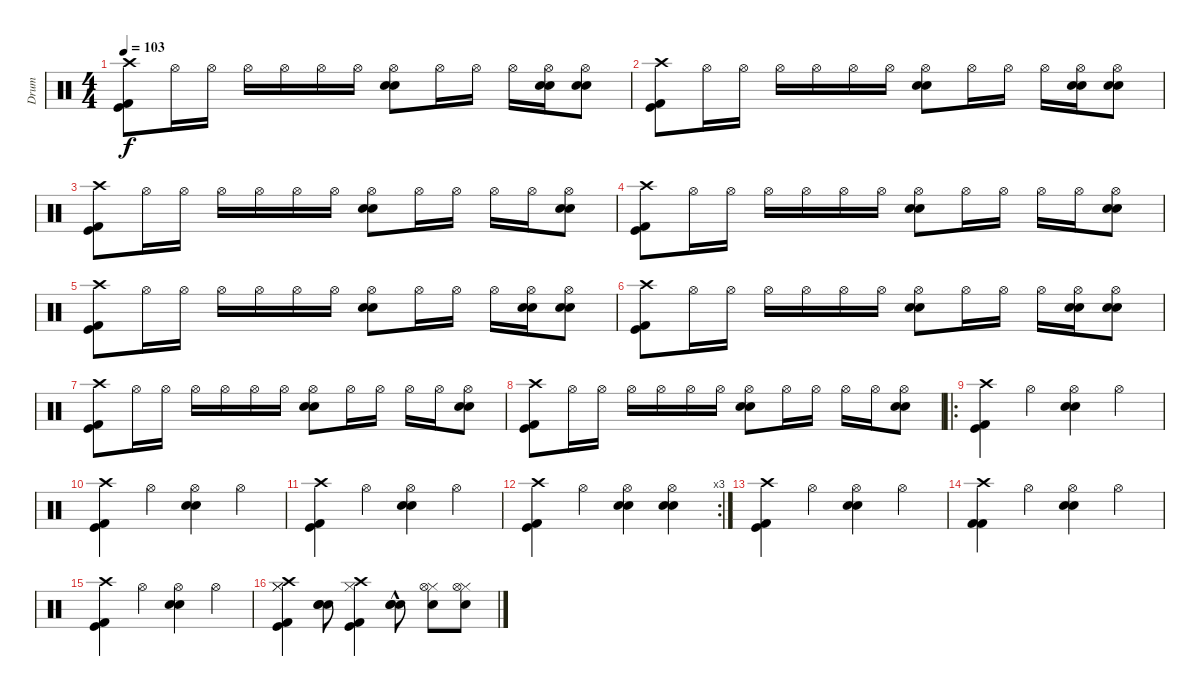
\track ("Drum" "Drum") {instrument percussion}
\staff {score}
\articulation defaults
\ts (4 4)
\tempo 103
\clef neutral
\ks c
("Kick (hit)" "Kick (hit) 2" "Crash high (hit)").8{dy f} "Hi-Hat (open)".16 "Hi-Hat (open)".16 "Hi-Hat (open)".16 "Hi-Hat (open)".16 "Hi-Hat (open)".16 "Hi-Hat (open)".16 ("Hi-Hat (open)" "Electric Snare (hit)" "Snare (hit) 2").8 "Hi-Hat (open)".16 "Hi-Hat (open)".16 "Hi-Hat (open)".16 ("Hi-Hat (open)" "Electric Snare (hit)" "Snare (hit) 2").16 ("Hi-Hat (open)" "Electric Snare (hit)" "Snare (hit) 2").8 |
("Kick (hit)" "Kick (hit) 2" "Crash high (hit)").8 "Hi-Hat (open)".16 "Hi-Hat (open)".16 "Hi-Hat (open)".16 "Hi-Hat (open)".16 "Hi-Hat (open)".16 "Hi-Hat (open)".16 ("Hi-Hat (open)" "Electric Snare (hit)" "Snare (hit) 2").8 "Hi-Hat (open)".16 "Hi-Hat (open)".16 "Hi-Hat (open)".16 ("Hi-Hat (open)" "Electric Snare (hit)" "Snare (hit) 2").16 ("Hi-Hat (open)" "Electric Snare (hit)" "Snare (hit) 2").8 |
("Kick (hit)" "Kick (hit) 2" "Crash high (hit)").8 "Hi-Hat (open)".16 "Hi-Hat (open)".16 "Hi-Hat (open)".16 "Hi-Hat (open)".16 "Hi-Hat (open)".16 "Hi-Hat (open)".16 ("Hi-Hat (open)" "Electric Snare (hit)" "Snare (hit) 2").8 "Hi-Hat (open)".16 "Hi-Hat (open)".16 "Hi-Hat (open)".16 "Hi-Hat (open)".16 ("Hi-Hat (open)" "Electric Snare (hit)" "Snare (hit) 2").8 |
("Kick (hit)" "Kick (hit) 2" "Crash high (hit)").8 "Hi-Hat (open)".16 "Hi-Hat (open)".16 "Hi-Hat (open)".16 "Hi-Hat (open)".16 "Hi-Hat (open)".16 "Hi-Hat (open)".16 ("Hi-Hat (open)" "Electric Snare (hit)" "Snare (hit) 2").8 "Hi-Hat (open)".16 "Hi-Hat (open)".16 "Hi-Hat (open)".16 "Hi-Hat (open)".16 ("Hi-Hat (open)" "Electric Snare (hit)" "Snare (hit) 2").8 |
("Kick (hit)" "Kick (hit) 2" "Crash high (hit)").8 "Hi-Hat (open)".16 "Hi-Hat (open)".16 "Hi-Hat (open)".16 "Hi-Hat (open)".16 "Hi-Hat (open)".16 "Hi-Hat (open)".16 ("Hi-Hat (open)" "Electric Snare (hit)" "Snare (hit) 2").8 "Hi-Hat (open)".16 "Hi-Hat (open)".16 "Hi-Hat (open)".16 ("Hi-Hat (open)" "Electric Snare (hit)" "Snare (hit) 2").16 ("Hi-Hat (open)" "Electric Snare (hit)" "Snare (hit) 2").8 |
("Kick (hit)" "Kick (hit) 2" "Crash high (hit)").8 "Hi-Hat (open)".16 "Hi-Hat (open)".16 "Hi-Hat (open)".16 "Hi-Hat (open)".16 "Hi-Hat (open)".16 "Hi-Hat (open)".16 ("Hi-Hat (open)" "Electric Snare (hit)" "Snare (hit) 2").8 "Hi-Hat (open)".16 "Hi-Hat (open)".16 "Hi-Hat (open)".16 ("Hi-Hat (open)" "Electric Snare (hit)" "Snare (hit) 2").16 ("Hi-Hat (open)" "Electric Snare (hit)" "Snare (hit) 2").8 |
("Kick (hit)" "Kick (hit) 2" "Crash high (hit)").8 "Hi-Hat (open)".16 "Hi-Hat (open)".16 "Hi-Hat (open)".16 "Hi-Hat (open)".16 "Hi-Hat (open)".16 "Hi-Hat (open)".16 ("Hi-Hat (open)" "Electric Snare (hit)" "Snare (hit) 2").8 "Hi-Hat (open)".16 "Hi-Hat (open)".16 "Hi-Hat (open)".16 "Hi-Hat (open)".16 ("Hi-Hat (open)" "Electric Snare (hit)" "Snare (hit) 2").8 |
("Kick (hit)" "Kick (hit) 2" "Crash high (hit)").8 "Hi-Hat (open)".16 "Hi-Hat (open)".16 "Hi-Hat (open)".16 "Hi-Hat (open)".16 "Hi-Hat (open)".16 "Hi-Hat (open)".16 ("Hi-Hat (open)" "Electric Snare (hit)" "Snare (hit) 2").8 "Hi-Hat (open)".16 "Hi-Hat (open)".16 "Hi-Hat (open)".16 "Hi-Hat (open)".16 ("Hi-Hat (open)" "Electric Snare (hit)" "Snare (hit) 2").8 |
\ro
("Kick (hit)" "Kick (hit) 2" "Crash high (hit)").4 "Hi-Hat (open)".4 ("Hi-Hat (open)" "Electric Snare (hit)" "Snare (hit) 2").4 "Hi-Hat (open)".4 |
("Kick (hit)" "Kick (hit) 2" "Crash high (hit)").4 "Hi-Hat (open)".4 ("Hi-Hat (open)" "Electric Snare (hit)" "Snare (hit) 2").4 "Hi-Hat (open)".4 |
("Kick (hit)" "Kick (hit) 2" "Crash high (hit)").4 "Hi-Hat (open)".4 ("Hi-Hat (open)" "Electric Snare (hit)" "Snare (hit) 2").4 "Hi-Hat (open)".4 |
\rc 3
("Kick (hit)" "Kick (hit) 2" "Crash high (hit)").4 "Hi-Hat (open)".4 ("Hi-Hat (open)" "Electric Snare (hit)" "Snare (hit) 2").4 ("Hi-Hat (open)" "Electric Snare (hit)" "Snare (hit) 2").4 |
("Kick (hit)" "Kick (hit) 2" "Crash high (hit)").4 "Hi-Hat (open)".4 ("Hi-Hat (open)" "Electric Snare (hit)" "Snare (hit) 2").4 "Hi-Hat (open)".4 |
("Kick (hit) 2" "Kick (hit) 2" "Crash high (hit)").4 "Hi-Hat (open)".4 ("Hi-Hat (open)" "Electric Snare (hit)" "Snare (hit) 2").4 "Hi-Hat (open)".4 |
("Kick (hit)" "Kick (hit) 2" "Crash high (hit)").4 "Hi-Hat (open)".4 ("Hi-Hat (open)" "Electric Snare (hit)" "Snare (hit) 2").4 "Hi-Hat (open)".4 |
("Hi-Hat (closed)" "Kick (hit)" "Kick (hit) 2" "Crash high (hit)" "Hi-Hat (closed)").4 ("Snare (hit) 2" "Electric Snare (hit)" "Electric Snare (hit)").8 ("Kick (hit)" "Kick (hit) 2" "Crash high (hit)" "Hi-Hat (closed)").4 ("Snare (hit) 2"{hac} "Electric Snare (hit)" "Electric Snare (hit)").8 ("Snare (hit) 2" "Hi-Hat (closed)" "Hi-Hat (open)").8 ("Snare (hit) 2" "Hi-Hat (closed)" "Hi-Hat (open)").8
